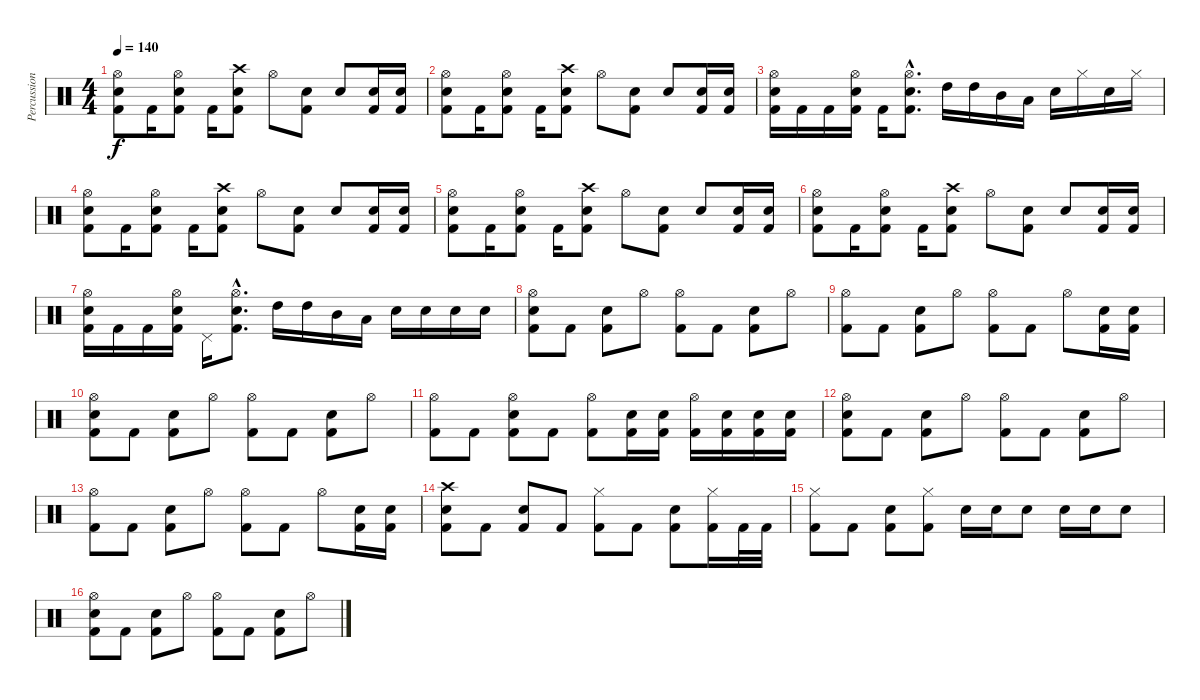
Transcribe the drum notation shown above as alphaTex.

\track ("Percussions" "Percussion") {instrument percussion}
\staff {score}
\articulation defaults
\ts (4 4)
\tempo 140
\clef neutral
\ks c
("Hi-Hat (open)" "Snare (hit) 2" "Kick (hit) 2").8{dy f} "Kick (hit) 2".16 ("Hi-Hat (open)" "Snare (hit) 2" "Kick (hit) 2").8 "Kick (hit) 2".16 ("Crash high (hit)" "Snare (hit) 2" "Kick (hit) 2").8 "Hi-Hat (open)".8 ("Snare (hit) 2" "Kick (hit) 2").8 "Snare (hit) 2".8 ("Snare (hit) 2" "Kick (hit) 2").16 ("Snare (hit) 2" "Kick (hit) 2").16 |
("Hi-Hat (open)" "Snare (hit) 2" "Kick (hit) 2").8 "Kick (hit) 2".16 ("Hi-Hat (open)" "Snare (hit) 2" "Kick (hit) 2").8 "Kick (hit) 2".16 ("Crash high (hit)" "Snare (hit) 2" "Kick (hit) 2").8 "Hi-Hat (open)".8 ("Snare (hit) 2" "Kick (hit) 2").8 "Snare (hit) 2".8 ("Snare (hit) 2" "Kick (hit) 2").16 ("Snare (hit) 2" "Kick (hit) 2").16 |
("Hi-Hat (open)" "Snare (hit) 2" "Kick (hit) 2").16 "Kick (hit) 2".16 "Kick (hit) 2".16 ("Hi-Hat (open)" "Snare (hit) 2" "Kick (hit) 2").16 "Kick (hit) 2".16 ("Hi-Hat (open)"{hac} "Snare (hit) 2"{hac} "Kick (hit) 2"{hac}).8{d} "High Tom (hit)".16 "High Tom (hit)".16 "Mid Tom (hit)".16 "Low Tom (hit)".16 "Snare (hit) 2".16 "Hi-Hat (closed)".16 "Snare (hit) 2".16 "Hi-Hat (closed)".16 |
("Hi-Hat (open)" "Snare (hit) 2" "Kick (hit) 2").8 "Kick (hit) 2".16 ("Hi-Hat (open)" "Snare (hit) 2" "Kick (hit) 2").8 "Kick (hit) 2".16 ("Crash high (hit)" "Snare (hit) 2" "Kick (hit) 2").8 "Hi-Hat (open)".8 ("Snare (hit) 2" "Kick (hit) 2").8 "Snare (hit) 2".8 ("Snare (hit) 2" "Kick (hit) 2").16 ("Snare (hit) 2" "Kick (hit) 2").16 |
("Hi-Hat (open)" "Snare (hit) 2" "Kick (hit) 2").8 "Kick (hit) 2".16 ("Hi-Hat (open)" "Snare (hit) 2" "Kick (hit) 2").8 "Kick (hit) 2".16 ("Crash high (hit)" "Snare (hit) 2" "Kick (hit) 2").8 "Hi-Hat (open)".8 ("Snare (hit) 2" "Kick (hit) 2").8 "Snare (hit) 2".8 ("Snare (hit) 2" "Kick (hit) 2").16 ("Snare (hit) 2" "Kick (hit) 2").16 |
("Hi-Hat (open)" "Snare (hit) 2" "Kick (hit) 2").8 "Kick (hit) 2".16 ("Hi-Hat (open)" "Snare (hit) 2" "Kick (hit) 2").8 "Kick (hit) 2".16 ("Crash high (hit)" "Snare (hit) 2" "Kick (hit) 2").8 "Hi-Hat (open)".8 ("Snare (hit) 2" "Kick (hit) 2").8 "Snare (hit) 2".8 ("Snare (hit) 2" "Kick (hit) 2").16 ("Snare (hit) 2" "Kick (hit) 2").16 |
("Hi-Hat (open)" "Snare (hit) 2" "Kick (hit) 2").16 "Kick (hit) 2".16 "Kick (hit) 2".16 ("Hi-Hat (open)" "Snare (hit) 2" "Kick (hit) 2").16 "Pedal Hi-Hat (hit)".16 ("Hi-Hat (open)"{hac} "Snare (hit) 2"{hac} "Kick (hit) 2"{hac}).8{d} "High Tom (hit)".16 "High Tom (hit)".16 "Mid Tom (hit)".16 "Low Tom (hit)".16 "Snare (hit) 2".16 "Snare (hit) 2".16 "Snare (hit) 2".16 "Snare (hit) 2".16 |
("Hi-Hat (open)" "Snare (hit) 2" "Kick (hit) 2").8 "Kick (hit) 2".8 ("Snare (hit) 2" "Kick (hit) 2").8 "Hi-Hat (open)".8 ("Hi-Hat (open)" "Kick (hit) 2").8 "Kick (hit) 2".8 ("Snare (hit) 2" "Kick (hit) 2").8 "Hi-Hat (open)".8 |
("Hi-Hat (open)" "Kick (hit) 2").8 "Kick (hit) 2".8 ("Snare (hit) 2" "Kick (hit) 2").8 "Hi-Hat (open)".8 ("Hi-Hat (open)" "Kick (hit) 2").8 "Kick (hit) 2".8 "Hi-Hat (open)".8 ("Snare (hit) 2" "Kick (hit) 2").16 ("Snare (hit) 2" "Kick (hit) 2").16 |
("Hi-Hat (open)" "Snare (hit) 2" "Kick (hit) 2").8 "Kick (hit) 2".8 ("Snare (hit) 2" "Kick (hit) 2").8 "Hi-Hat (open)".8 ("Hi-Hat (open)" "Kick (hit) 2").8 "Kick (hit) 2".8 ("Snare (hit) 2" "Kick (hit) 2").8 "Hi-Hat (open)".8 |
("Hi-Hat (open)" "Kick (hit) 2").8 "Kick (hit) 2".8 ("Hi-Hat (open)" "Snare (hit) 2" "Kick (hit) 2").8 "Kick (hit) 2".8 ("Hi-Hat (open)" "Kick (hit) 2").8 ("Snare (hit) 2" "Kick (hit) 2").16 ("Snare (hit) 2" "Kick (hit) 2").16 ("Hi-Hat (open)" "Kick (hit) 2").16 ("Snare (hit) 2" "Kick (hit) 2").16 ("Snare (hit) 2" "Kick (hit) 2").16 ("Snare (hit) 2" "Kick (hit) 2").16 |
("Hi-Hat (open)" "Snare (hit) 2" "Kick (hit) 2").8 "Kick (hit) 2".8 ("Snare (hit) 2" "Kick (hit) 2").8 "Hi-Hat (open)".8 ("Hi-Hat (open)" "Kick (hit) 2").8 "Kick (hit) 2".8 ("Snare (hit) 2" "Kick (hit) 2").8 "Hi-Hat (open)".8 |
("Hi-Hat (open)" "Kick (hit) 2").8 "Kick (hit) 2".8 ("Snare (hit) 2" "Kick (hit) 2").8 "Hi-Hat (open)".8 ("Hi-Hat (open)" "Kick (hit) 2").8 "Kick (hit) 2".8 "Hi-Hat (open)".8 ("Snare (hit) 2" "Kick (hit) 2").16 ("Snare (hit) 2" "Kick (hit) 2").16 |
("Crash high (hit)" "Snare (hit) 2" "Kick (hit) 2").8 "Kick (hit) 2".8 ("Snare (hit) 2" "Kick (hit) 2").8 "Kick (hit) 2".8 ("Hi-Hat (closed)" "Kick (hit) 2").8 "Kick (hit) 2".8 ("Snare (hit) 2" "Kick (hit) 2").8 ("Hi-Hat (closed)" "Kick (hit) 2").16 "Kick (hit) 2".32 "Kick (hit) 2".32 |
("Hi-Hat (closed)" "Kick (hit) 2").8 "Kick (hit) 2".8 ("Snare (hit) 2" "Kick (hit) 2").8 ("Hi-Hat (closed)" "Kick (hit) 2").8 "Snare (hit) 2".16 "Snare (hit) 2".16 "Snare (hit) 2".8 "Snare (hit) 2".16 "Snare (hit) 2".16 "Snare (hit) 2".8 |
("Hi-Hat (open)" "Snare (hit) 2" "Kick (hit) 2").8 "Kick (hit) 2".8 ("Snare (hit) 2" "Kick (hit) 2").8 "Hi-Hat (open)".8 ("Hi-Hat (open)" "Kick (hit) 2").8 "Kick (hit) 2".8 ("Snare (hit) 2" "Kick (hit) 2").8 "Hi-Hat (open)".8
